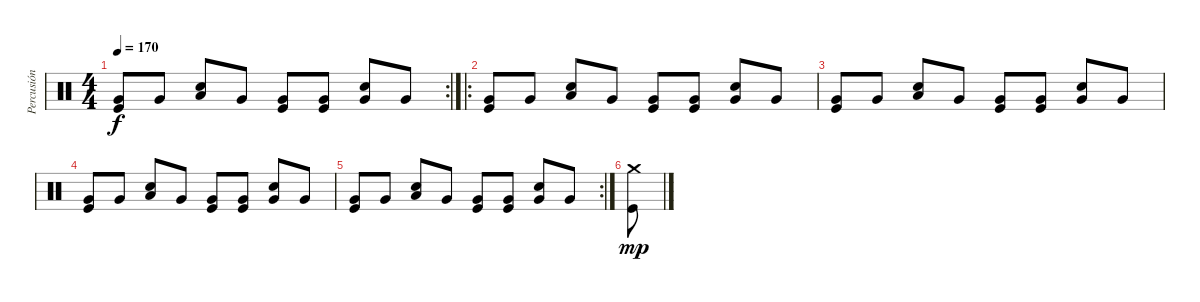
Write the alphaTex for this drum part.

\track ("Percusión" "Percusión") {instrument percussion}
\staff {score}
\articulation defaults
\rc 2
\ts (4 4)
\tempo 170
\clef neutral
\ks c
("Very Low Tom (hit)" "Kick (hit)").8{dy f} "Very Low Tom (hit)".8 ("Low Tom (hit)" "Electric Snare (hit)").8 "Very Low Tom (hit)".8 ("Very Low Tom (hit)" "Kick (hit)").8 ("Very Low Tom (hit)" "Kick (hit)").8 ("Very Low Tom (hit)" "Electric Snare (hit)").8 "Very Low Tom (hit)".8 |
\ro
("Very Low Tom (hit)" "Kick (hit)").8 "Very Low Tom (hit)".8 ("Low Tom (hit)" "Electric Snare (hit)").8 "Very Low Tom (hit)".8 ("Very Low Tom (hit)" "Kick (hit)").8 ("Very Low Tom (hit)" "Kick (hit)").8 ("Very Low Tom (hit)" "Electric Snare (hit)").8 "Very Low Tom (hit)".8 |
("Very Low Tom (hit)" "Kick (hit)").8 "Very Low Tom (hit)".8 ("Low Tom (hit)" "Electric Snare (hit)").8 "Very Low Tom (hit)".8 ("Very Low Tom (hit)" "Kick (hit)").8 ("Very Low Tom (hit)" "Kick (hit)").8 ("Very Low Tom (hit)" "Electric Snare (hit)").8 "Very Low Tom (hit)".8 |
("Very Low Tom (hit)" "Kick (hit)").8 "Very Low Tom (hit)".8 ("Low Tom (hit)" "Electric Snare (hit)").8 "Very Low Tom (hit)".8 ("Very Low Tom (hit)" "Kick (hit)").8 ("Very Low Tom (hit)" "Kick (hit)").8 ("Very Low Tom (hit)" "Electric Snare (hit)").8 "Very Low Tom (hit)".8 |
\rc 2
("Very Low Tom (hit)" "Kick (hit)").8 "Very Low Tom (hit)".8 ("Low Tom (hit)" "Electric Snare (hit)").8 "Very Low Tom (hit)".8 ("Very Low Tom (hit)" "Kick (hit)").8 ("Very Low Tom (hit)" "Kick (hit)").8 ("Very Low Tom (hit)" "Electric Snare (hit)").8 "Very Low Tom (hit)".8 |
("Kick (hit)" "Crash medium (hit)").8{dy mp}
